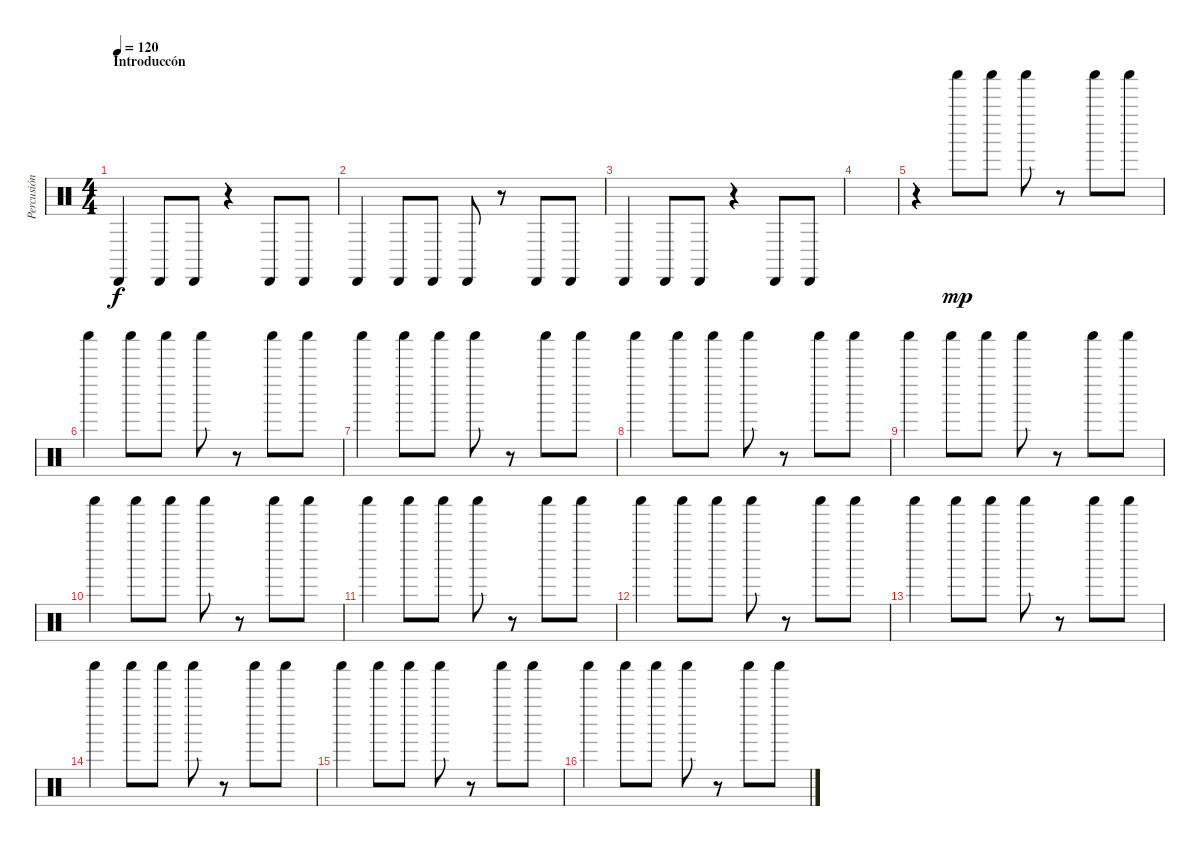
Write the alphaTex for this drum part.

\track ("Percusión" "Percusión") {instrument percussion}
\staff {score}
\articulation defaults
\ts (4 4)
\section ("" "Introduccón")
\tempo 120
\clef neutral
\ks c "Cabasa (hit)".4{dy f} "Cabasa (hit)".8 "Cabasa (hit)".8
r.4 "Cabasa (hit)".8 "Cabasa (hit)".8 |
"Cabasa (hit)".4 "Cabasa (hit)".8 "Cabasa (hit)".8 "Cabasa (hit)".8 r.8 "Cabasa (hit)".8 "Cabasa (hit)".8 |
"Cabasa (hit)".4 "Cabasa (hit)".8 "Cabasa (hit)".8 r.4 "Cabasa (hit)".8 "Cabasa (hit)".8 |
|
r.4 "Shaker (hit)".8{dy mp} "Shaker (hit)".8 "Shaker (hit)".8 r.8 "Shaker (hit)".8 "Shaker (hit)".8 |
"Shaker (hit)".4 "Shaker (hit)".8 "Shaker (hit)".8 "Shaker (hit)".8 r.8 "Shaker (hit)".8 "Shaker (hit)".8 |
"Shaker (hit)".4 "Shaker (hit)".8 "Shaker (hit)".8 "Shaker (hit)".8 r.8 "Shaker (hit)".8 "Shaker (hit)".8 |
"Shaker (hit)".4 "Shaker (hit)".8 "Shaker (hit)".8 "Shaker (hit)".8 r.8 "Shaker (hit)".8 "Shaker (hit)".8 |
"Shaker (hit)".4 "Shaker (hit)".8 "Shaker (hit)".8 "Shaker (hit)".8 r.8 "Shaker (hit)".8 "Shaker (hit)".8 |
"Shaker (hit)".4 "Shaker (hit)".8 "Shaker (hit)".8 "Shaker (hit)".8 r.8 "Shaker (hit)".8 "Shaker (hit)".8 |
"Shaker (hit)".4 "Shaker (hit)".8 "Shaker (hit)".8 "Shaker (hit)".8 r.8 "Shaker (hit)".8 "Shaker (hit)".8 |
"Shaker (hit)".4 "Shaker (hit)".8 "Shaker (hit)".8 "Shaker (hit)".8 r.8 "Shaker (hit)".8 "Shaker (hit)".8 |
"Shaker (hit)".4 "Shaker (hit)".8 "Shaker (hit)".8 "Shaker (hit)".8 r.8 "Shaker (hit)".8 "Shaker (hit)".8 |
"Shaker (hit)".4 "Shaker (hit)".8 "Shaker (hit)".8 "Shaker (hit)".8 r.8 "Shaker (hit)".8 "Shaker (hit)".8 |
"Shaker (hit)".4 "Shaker (hit)".8 "Shaker (hit)".8 "Shaker (hit)".8 r.8 "Shaker (hit)".8 "Shaker (hit)".8 |
"Shaker (hit)".4 "Shaker (hit)".8 "Shaker (hit)".8 "Shaker (hit)".8 r.8 "Shaker (hit)".8 "Shaker (hit)".8
